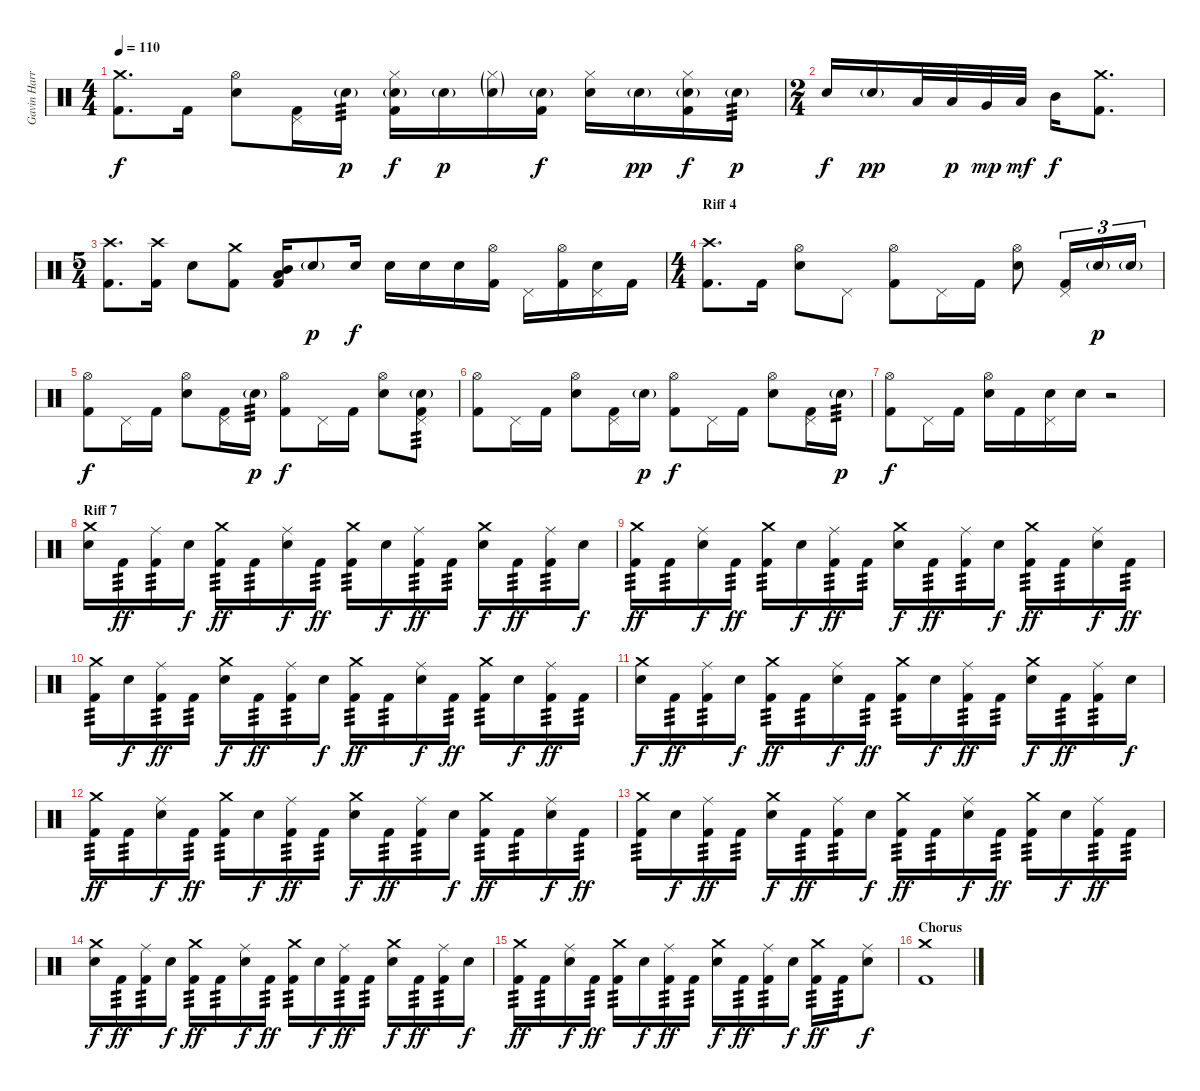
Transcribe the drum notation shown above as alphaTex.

\track ("Gavin Harrison - Drums" "Gavin Harr") {instrument percussion}
\staff {score}
\articulation defaults
\ts (4 4)
\tempo 110
\clef neutral
\ks c
("Crash medium (hit)" "Kick (hit) 2").8{d dy f} "Kick (hit) 2".16 ("Hi-Hat (open)" "Electric Snare (hit)").8 ("Pedal Hi-Hat (hit)" "Kick (hit) 2").16 "Electric Snare (hit)"{g}.16{tp 3 dy p} ("Hi-Hat (closed)" "Electric Snare (hit)"{g} "Kick (hit) 2").16{dy f} "Electric Snare (hit)"{g}.16{dy p} ("Hi-Hat (closed)"{g} "Electric Snare (hit)"{g}).16 ("Electric Snare (hit)"{g} "Kick (hit) 2").16{dy f} ("Hi-Hat (closed)" "Electric Snare (hit)").16 "Electric Snare (hit)"{g}.16{dy pp} ("Hi-Hat (closed)" "Electric Snare (hit)"{g} "Kick (hit) 2").16{dy f} "Electric Snare (hit)"{g}.16{tp 3 dy p} |
\ts (2 4)
"Electric Snare (hit)".16{dy f} "Electric Snare (hit)"{g}.16{dy pp} "Low Floor Tom (hit)".32 "Low Floor Tom (hit)".32{dy p} "Very Low Tom (hit)".32{dy mp} "Low Tom (hit)".32{dy mf} "Mid Tom (hit)".16{dy f} ("Crash medium (hit)" "Kick (hit) 2").8{d} |
\ts (5 4)
("Crash high (hit)" "Kick (hit) 2").8{d} ("Crash high (hit)" "Kick (hit) 2").16 "Electric Snare (hit)".8 ("Crash medium (hit)" "Kick (hit) 2").8 ("Mid Tom (hit)" "Low Tom (hit)" "Kick (hit) 2").16 "Electric Snare (hit)"{g}.8{dy p} "Electric Snare (hit)".16{dy f} "Electric Snare (hit)".16 "Electric Snare (hit)".16 "Electric Snare (hit)".16 ("Hi-Hat (open)" "Kick (hit) 2").16 "Pedal Hi-Hat (hit)".16 ("Hi-Hat (open)" "Kick (hit) 2").16 ("Pedal Hi-Hat (hit)" "Electric Snare (hit)").16 "Kick (hit) 2".16 |
\ts (4 4)
\section ("" "Riff 4")
("Crash high (hit)" "Kick (hit) 2").8{d} "Kick (hit) 2".16 ("Hi-Hat (open)" "Electric Snare (hit)").8 "Pedal Hi-Hat (hit)".8 ("Hi-Hat (open)" "Kick (hit) 2").8 "Pedal Hi-Hat (hit)".16 "Kick (hit) 2".16 ("Hi-Hat (open)" "Electric Snare (hit)").8 ("Pedal Hi-Hat (hit)" "Kick (hit) 2").16{tu (3 2)} "Electric Snare (hit)"{g}.16{tu (3 2) dy p} "Electric Snare (hit)"{g}.16{tu (3 2)} |
("Hi-Hat (open)" "Kick (hit) 2").8{dy f} "Pedal Hi-Hat (hit)".16 "Kick (hit) 2".16 ("Hi-Hat (open)" "Electric Snare (hit)").8 ("Pedal Hi-Hat (hit)" "Kick (hit) 2").16 "Electric Snare (hit)"{g}.16{tp 3 dy p} ("Hi-Hat (open)" "Kick (hit) 2").8{dy f} "Pedal Hi-Hat (hit)".16 "Kick (hit) 2".16 ("Hi-Hat (open)" "Electric Snare (hit)").8 ("Pedal Hi-Hat (hit)" "Electric Snare (hit)"{g} "Kick (hit) 2").8{tp 3} |
("Hi-Hat (open)" "Kick (hit) 2").8 "Pedal Hi-Hat (hit)".16 "Kick (hit) 2".16 ("Hi-Hat (open)" "Electric Snare (hit)").8 ("Pedal Hi-Hat (hit)" "Kick (hit) 2").16 "Electric Snare (hit)"{g}.16{dy p} ("Hi-Hat (open)" "Kick (hit) 2").8{dy f} "Pedal Hi-Hat (hit)".16 "Kick (hit) 2".16 ("Hi-Hat (open)" "Electric Snare (hit)").8 ("Pedal Hi-Hat (hit)" "Kick (hit) 2").16 "Electric Snare (hit)"{g}.16{tp 3 dy p} |
("Hi-Hat (open)" "Kick (hit) 2").8{dy f} "Pedal Hi-Hat (hit)".16 "Kick (hit) 2".16 ("Hi-Hat (open)" "Electric Snare (hit)").16 "Kick (hit) 2".16 ("Pedal Hi-Hat (hit)" "Electric Snare (hit)").16 "Electric Snare (hit)".16 r.2 |
\section ("" "Riff 7")
("Crash medium (hit)" "Electric Snare (hit)").16 "Kick (hit) 2".16{tp 3 dy ff} ("Ride (middle)" "Kick (hit) 2").16{tp 3} "Electric Snare (hit)".16{dy f} ("Crash medium (hit)" "Kick (hit) 2").16{tp 3 dy ff} "Kick (hit) 2".16{tp 3} ("Ride (middle)" "Electric Snare (hit)").16{dy f} "Kick (hit) 2".16{tp 3 dy ff} ("Crash medium (hit)" "Kick (hit) 2").16{tp 3} "Electric Snare (hit)".16{dy f} ("Ride (middle)" "Kick (hit) 2").16{tp 3 dy ff} "Kick (hit) 2".16{tp 3} ("Crash medium (hit)" "Electric Snare (hit)").16{dy f} "Kick (hit) 2".16{tp 3 dy ff} ("Ride (middle)" "Kick (hit) 2").16{tp 3} "Electric Snare (hit)".16{dy f} |
("Crash medium (hit)" "Kick (hit) 2").16{tp 3 dy ff} "Kick (hit) 2".16{tp 3} ("Ride (middle)" "Electric Snare (hit)").16{dy f} "Kick (hit) 2".16{tp 3 dy ff} ("Crash medium (hit)" "Kick (hit) 2").16{tp 3} "Electric Snare (hit)".16{dy f} ("Ride (middle)" "Kick (hit) 2").16{tp 3 dy ff} "Kick (hit) 2".16{tp 3} ("Crash medium (hit)" "Electric Snare (hit)").16{dy f} "Kick (hit) 2".16{tp 3 dy ff} ("Ride (middle)" "Kick (hit) 2").16{tp 3} "Electric Snare (hit)".16{dy f} ("Crash medium (hit)" "Kick (hit) 2").16{tp 3 dy ff} "Kick (hit) 2".16{tp 3} ("Ride (middle)" "Electric Snare (hit)").16{dy f} "Kick (hit) 2".16{tp 3 dy ff} |
("Crash medium (hit)" "Kick (hit) 2").16{tp 3} "Electric Snare (hit)".16{dy f} ("Ride (middle)" "Kick (hit) 2").16{tp 3 dy ff} "Kick (hit) 2".16{tp 3} ("Crash medium (hit)" "Electric Snare (hit)").16{dy f} "Kick (hit) 2".16{tp 3 dy ff} ("Ride (middle)" "Kick (hit) 2").16{tp 3} "Electric Snare (hit)".16{dy f} ("Crash medium (hit)" "Kick (hit) 2").16{tp 3 dy ff} "Kick (hit) 2".16{tp 3} ("Ride (middle)" "Electric Snare (hit)").16{dy f} "Kick (hit) 2".16{tp 3 dy ff} ("Crash medium (hit)" "Kick (hit) 2").16{tp 3} "Electric Snare (hit)".16{dy f} ("Ride (middle)" "Kick (hit) 2").16{tp 3 dy ff} "Kick (hit) 2".16{tp 3} |
("Crash medium (hit)" "Electric Snare (hit)").16{dy f} "Kick (hit) 2".16{tp 3 dy ff} ("Ride (middle)" "Kick (hit) 2").16{tp 3} "Electric Snare (hit)".16{dy f} ("Crash medium (hit)" "Kick (hit) 2").16{tp 3 dy ff} "Kick (hit) 2".16{tp 3} ("Ride (middle)" "Electric Snare (hit)").16{dy f} "Kick (hit) 2".16{tp 3 dy ff} ("Crash medium (hit)" "Kick (hit) 2").16{tp 3} "Electric Snare (hit)".16{dy f} ("Ride (middle)" "Kick (hit) 2").16{tp 3 dy ff} "Kick (hit) 2".16{tp 3} ("Crash medium (hit)" "Electric Snare (hit)").16{dy f} "Kick (hit) 2".16{tp 3 dy ff} ("Ride (middle)" "Kick (hit) 2").16{tp 3} "Electric Snare (hit)".16{dy f} |
("Crash medium (hit)" "Kick (hit) 2").16{tp 3 dy ff} "Kick (hit) 2".16{tp 3} ("Ride (middle)" "Electric Snare (hit)").16{dy f} "Kick (hit) 2".16{tp 3 dy ff} ("Crash medium (hit)" "Kick (hit) 2").16{tp 3} "Electric Snare (hit)".16{dy f} ("Ride (middle)" "Kick (hit) 2").16{tp 3 dy ff} "Kick (hit) 2".16{tp 3} ("Crash medium (hit)" "Electric Snare (hit)").16{dy f} "Kick (hit) 2".16{tp 3 dy ff} ("Ride (middle)" "Kick (hit) 2").16{tp 3} "Electric Snare (hit)".16{dy f} ("Crash medium (hit)" "Kick (hit) 2").16{tp 3 dy ff} "Kick (hit) 2".16{tp 3} ("Ride (middle)" "Electric Snare (hit)").16{dy f} "Kick (hit) 2".16{tp 3 dy ff} |
("Crash medium (hit)" "Kick (hit) 2").16{tp 3} "Electric Snare (hit)".16{dy f} ("Ride (middle)" "Kick (hit) 2").16{tp 3 dy ff} "Kick (hit) 2".16{tp 3} ("Crash medium (hit)" "Electric Snare (hit)").16{dy f} "Kick (hit) 2".16{tp 3 dy ff} ("Ride (middle)" "Kick (hit) 2").16{tp 3} "Electric Snare (hit)".16{dy f} ("Crash medium (hit)" "Kick (hit) 2").16{tp 3 dy ff} "Kick (hit) 2".16{tp 3} ("Ride (middle)" "Electric Snare (hit)").16{dy f} "Kick (hit) 2".16{tp 3 dy ff} ("Crash medium (hit)" "Kick (hit) 2").16{tp 3} "Electric Snare (hit)".16{dy f} ("Ride (middle)" "Kick (hit) 2").16{tp 3 dy ff} "Kick (hit) 2".16{tp 3} |
("Crash medium (hit)" "Electric Snare (hit)").16{dy f} "Kick (hit) 2".16{tp 3 dy ff} ("Ride (middle)" "Kick (hit) 2").16{tp 3} "Electric Snare (hit)".16{dy f} ("Crash medium (hit)" "Kick (hit) 2").16{tp 3 dy ff} "Kick (hit) 2".16{tp 3} ("Ride (middle)" "Electric Snare (hit)").16{dy f} "Kick (hit) 2".16{tp 3 dy ff} ("Crash medium (hit)" "Kick (hit) 2").16{tp 3} "Electric Snare (hit)".16{dy f} ("Ride (middle)" "Kick (hit) 2").16{tp 3 dy ff} "Kick (hit) 2".16{tp 3} ("Crash medium (hit)" "Electric Snare (hit)").16{dy f} "Kick (hit) 2".16{tp 3 dy ff} ("Ride (middle)" "Kick (hit) 2").16{tp 3} "Electric Snare (hit)".16{dy f} |
("Crash medium (hit)" "Kick (hit) 2").16{tp 3 dy ff} "Kick (hit) 2".16{tp 3} ("Ride (middle)" "Electric Snare (hit)").16{dy f} "Kick (hit) 2".16{tp 3 dy ff} ("Crash medium (hit)" "Kick (hit) 2").16{tp 3} "Electric Snare (hit)".16{dy f} ("Ride (middle)" "Kick (hit) 2").16{tp 3 dy ff} "Kick (hit) 2".16{tp 3} ("Crash medium (hit)" "Electric Snare (hit)").16{dy f} "Kick (hit) 2".16{tp 3 dy ff} ("Ride (middle)" "Kick (hit) 2").16{tp 3} "Electric Snare (hit)".16{dy f} ("Crash medium (hit)" "Kick (hit) 2").16{tp 3 dy ff} "Kick (hit) 2".16{tp 3} ("Ride (middle)" "Electric Snare (hit)").8{dy f} |
\section ("" "Chorus")
("Crash medium (hit)" "Kick (hit) 2").1
